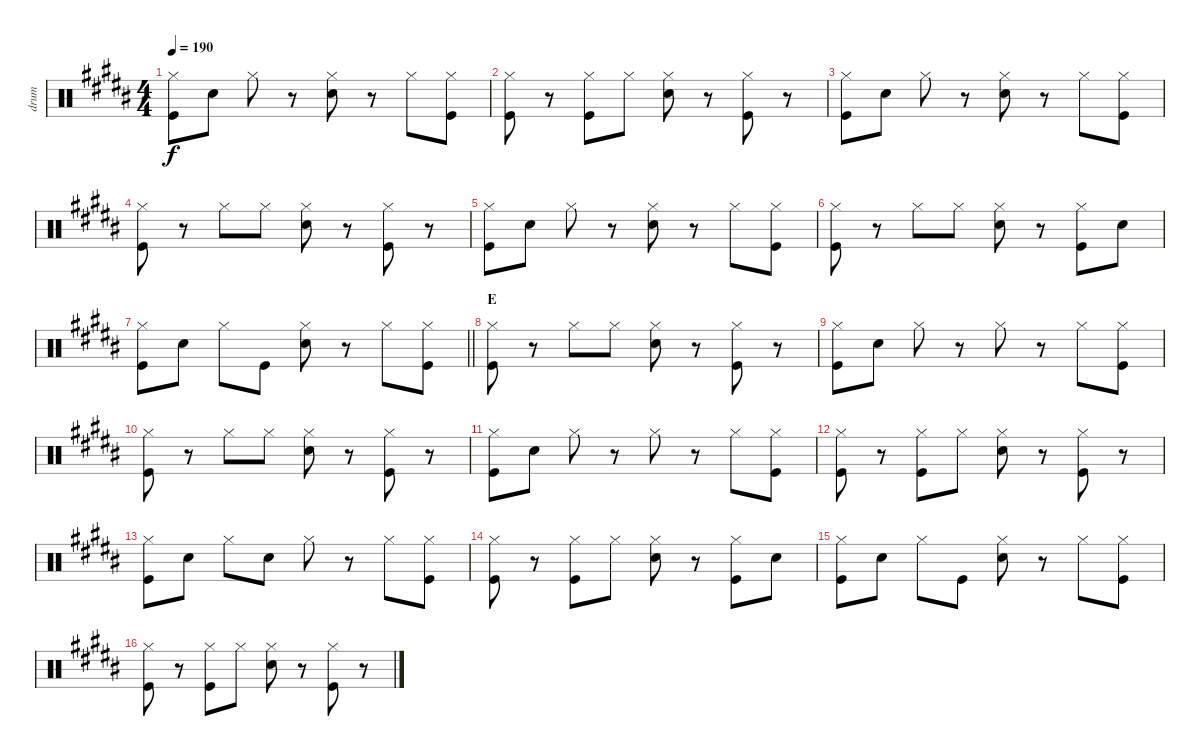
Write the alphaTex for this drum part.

\track ("drum" "drum") {instrument percussion}
\staff {score}
\articulation defaults
\ts (4 4)
\tempo 190
\clef neutral
\ks b
("Hi-Hat (closed)" "Kick (hit)").8{dy f} "Snare (hit) 2".8 "Hi-Hat (closed)".8 r.8 ("Hi-Hat (closed)" "Snare (hit) 2").8 r.8 "Hi-Hat (closed)".8 ("Hi-Hat (closed)" "Kick (hit)").8 |
("Hi-Hat (closed)" "Kick (hit)").8 r.8 ("Hi-Hat (closed)" "Kick (hit)").8 "Hi-Hat (closed)".8 ("Hi-Hat (closed)" "Snare (hit) 2").8 r.8 ("Hi-Hat (closed)" "Kick (hit)").8 r.8 |
("Hi-Hat (closed)" "Kick (hit)").8 "Snare (hit) 2".8 "Hi-Hat (closed)".8 r.8 ("Hi-Hat (closed)" "Snare (hit) 2").8 r.8 "Hi-Hat (closed)".8 ("Hi-Hat (closed)" "Kick (hit)").8 |
("Hi-Hat (closed)" "Kick (hit)").8 r.8 "Hi-Hat (closed)".8 "Hi-Hat (closed)".8 ("Hi-Hat (closed)" "Snare (hit) 2").8 r.8 ("Hi-Hat (closed)" "Kick (hit)").8 r.8 |
("Hi-Hat (closed)" "Kick (hit)").8 "Snare (hit) 2".8 "Hi-Hat (closed)".8 r.8 ("Hi-Hat (closed)" "Snare (hit) 2").8 r.8 "Hi-Hat (closed)".8 ("Hi-Hat (closed)" "Kick (hit)").8 |
("Hi-Hat (closed)" "Kick (hit)").8 r.8 "Hi-Hat (closed)".8 "Hi-Hat (closed)".8 ("Hi-Hat (closed)" "Snare (hit) 2").8 r.8 ("Hi-Hat (closed)" "Kick (hit)").8 "Snare (hit) 2".8 |
\barLineRight lightlight
("Hi-Hat (closed)" "Kick (hit)").8 "Snare (hit) 2".8 "Hi-Hat (closed)".8 "Kick (hit)".8 ("Hi-Hat (closed)" "Snare (hit) 2").8 r.8 "Hi-Hat (closed)".8 ("Hi-Hat (closed)" "Kick (hit)").8 |
\section ("" "E")
("Hi-Hat (closed)" "Kick (hit)").8 r.8 "Hi-Hat (closed)".8 "Hi-Hat (closed)".8 ("Hi-Hat (closed)" "Snare (hit) 2").8 r.8 ("Hi-Hat (closed)" "Kick (hit)").8 r.8 |
("Hi-Hat (closed)" "Kick (hit)").8 "Snare (hit) 2".8 "Hi-Hat (closed)".8 r.8 "Hi-Hat (closed)".8 r.8 "Hi-Hat (closed)".8 ("Hi-Hat (closed)" "Kick (hit)").8 |
("Hi-Hat (closed)" "Kick (hit)").8 r.8 "Hi-Hat (closed)".8 "Hi-Hat (closed)".8 ("Hi-Hat (closed)" "Snare (hit) 2").8 r.8 ("Hi-Hat (closed)" "Kick (hit)").8 r.8 |
("Hi-Hat (closed)" "Kick (hit)").8 "Snare (hit) 2".8 "Hi-Hat (closed)".8 r.8 "Hi-Hat (closed)".8 r.8 "Hi-Hat (closed)".8 ("Hi-Hat (closed)" "Kick (hit)").8 |
("Hi-Hat (closed)" "Kick (hit)").8 r.8 ("Hi-Hat (closed)" "Kick (hit)").8 "Hi-Hat (closed)".8 ("Hi-Hat (closed)" "Snare (hit) 2").8 r.8 ("Hi-Hat (closed)" "Kick (hit)").8 r.8 |
("Hi-Hat (closed)" "Kick (hit)").8 "Snare (hit) 2".8 "Hi-Hat (closed)".8 "Snare (hit) 2".8 "Hi-Hat (closed)".8 r.8 "Hi-Hat (closed)".8 ("Hi-Hat (closed)" "Kick (hit)").8 |
("Hi-Hat (closed)" "Kick (hit)").8 r.8 ("Hi-Hat (closed)" "Kick (hit)").8 "Hi-Hat (closed)".8 ("Hi-Hat (closed)" "Snare (hit) 2").8 r.8 ("Hi-Hat (closed)" "Kick (hit)").8 "Snare (hit) 2".8 |
("Hi-Hat (closed)" "Kick (hit)").8 "Snare (hit) 2".8 "Hi-Hat (closed)".8 "Kick (hit)".8 ("Hi-Hat (closed)" "Snare (hit) 2").8 r.8 "Hi-Hat (closed)".8 ("Hi-Hat (closed)" "Kick (hit)").8 |
("Hi-Hat (closed)" "Kick (hit)").8 r.8 ("Hi-Hat (closed)" "Kick (hit)").8 "Hi-Hat (closed)".8 ("Hi-Hat (closed)" "Snare (hit) 2").8 r.8 ("Hi-Hat (closed)" "Kick (hit)").8 r.8
